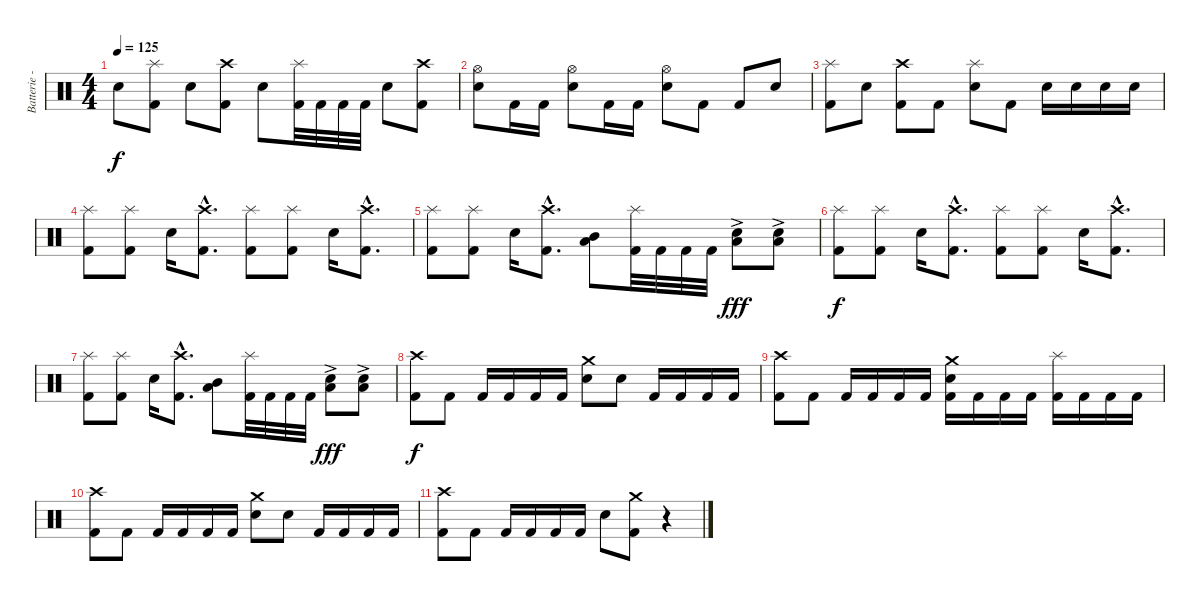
\track ("Batterie - Anton" "Batterie -") {instrument percussion}
\staff {score}
\articulation defaults
\ts (4 4)
\tempo 125
\clef neutral
\ks c "Electric Snare (hit)".8{dy f}
("Splash (hit)" "Kick (hit) 2").8 "Electric Snare (hit)".8 ("Crash high (hit)" "Kick (hit) 2").8 "Electric Snare (hit)".8 ("Splash (hit)" "Kick (hit) 2").32 "Kick (hit) 2".32 "Kick (hit) 2".32 "Kick (hit) 2".32 "Electric Snare (hit)".8 ("Crash high (hit)" "Kick (hit) 2").8 |
("Hi-Hat (open)" "Electric Snare (hit)").8 "Kick (hit) 2".16 "Kick (hit) 2".16 ("Hi-Hat (open)" "Electric Snare (hit)").8 "Kick (hit) 2".16 "Kick (hit) 2".16 ("Hi-Hat (open)" "Electric Snare (hit)").8 "Kick (hit) 2".8 "Kick (hit) 2".8 "Electric Snare (hit)".8 |
("Splash (hit)" "Kick (hit) 2").8 "Electric Snare (hit)".8 ("Crash high (hit)" "Kick (hit) 2").8 "Kick (hit) 2".8 ("Splash (hit)" "Electric Snare (hit)").8 "Kick (hit) 2".8 "Electric Snare (hit)".16 "Electric Snare (hit)".16 "Electric Snare (hit)".16 "Electric Snare (hit)".16 |
("Splash (hit)" "Kick (hit) 2").8 ("Splash (hit)" "Kick (hit) 2").8 "Electric Snare (hit)".16 ("Crash high (hit)"{hac} "Kick (hit) 2"{hac}).8{d} ("Splash (hit)" "Kick (hit) 2").8 ("Splash (hit)" "Kick (hit) 2").8 "Electric Snare (hit)".16 ("Crash high (hit)"{hac} "Kick (hit) 2"{hac}).8{d} |
("Splash (hit)" "Kick (hit) 2").8 ("Splash (hit)" "Kick (hit) 2").8 "Electric Snare (hit)".16 ("Crash high (hit)"{hac} "Kick (hit) 2"{hac}).8{d} ("Low Tom (hit)" "Mid Tom (hit)").8 ("Splash (hit)" "Kick (hit) 2").32 "Kick (hit) 2".32 "Kick (hit) 2".32 "Kick (hit) 2".32 ("Low Floor Tom (hit)" "Electric Snare (hit)"{ac}).8{dy fff} ("Low Floor Tom (hit)" "Electric Snare (hit)"{ac}).8 |
("Splash (hit)" "Kick (hit) 2").8{dy f} ("Splash (hit)" "Kick (hit) 2").8 "Electric Snare (hit)".16 ("Crash high (hit)"{hac} "Kick (hit) 2"{hac}).8{d} ("Splash (hit)" "Kick (hit) 2").8 ("Splash (hit)" "Kick (hit) 2").8 "Electric Snare (hit)".16 ("Crash high (hit)"{hac} "Kick (hit) 2"{hac}).8{d} |
("Splash (hit)" "Kick (hit) 2").8 ("Splash (hit)" "Kick (hit) 2").8 "Electric Snare (hit)".16 ("Crash high (hit)"{hac} "Kick (hit) 2"{hac}).8{d} ("Low Tom (hit)" "Mid Tom (hit)").8 ("Splash (hit)" "Kick (hit) 2").32 "Kick (hit) 2".32 "Kick (hit) 2".32 "Kick (hit) 2".32 ("Low Floor Tom (hit)" "Electric Snare (hit)"{ac}).8{dy fff} ("Low Floor Tom (hit)" "Electric Snare (hit)"{ac}).8 |
("Crash high (hit)" "Kick (hit) 2").8{dy f} "Kick (hit) 2".8 "Kick (hit) 2".16 "Kick (hit) 2".16 "Kick (hit) 2".16 "Kick (hit) 2".16 ("Crash medium (hit)" "Electric Snare (hit)").8 "Electric Snare (hit)".8 "Kick (hit) 2".16 "Kick (hit) 2".16 "Kick (hit) 2".16 "Kick (hit) 2".16 |
("Crash high (hit)" "Kick (hit) 2").8 "Kick (hit) 2".8 "Kick (hit) 2".16 "Kick (hit) 2".16 "Kick (hit) 2".16 "Kick (hit) 2".16 ("Crash medium (hit)" "Electric Snare (hit)" "Kick (hit) 2").16 "Kick (hit) 2".16 "Kick (hit) 2".16 "Kick (hit) 2".16 ("Splash (hit)" "Kick (hit) 2").16 "Kick (hit) 2".16 "Kick (hit) 2".16 "Kick (hit) 2".16 |
("Crash high (hit)" "Kick (hit) 2").8 "Kick (hit) 2".8 "Kick (hit) 2".16 "Kick (hit) 2".16 "Kick (hit) 2".16 "Kick (hit) 2".16 ("Crash medium (hit)" "Electric Snare (hit)").8 "Electric Snare (hit)".8 "Kick (hit) 2".16 "Kick (hit) 2".16 "Kick (hit) 2".16 "Kick (hit) 2".16 |
("Crash high (hit)" "Kick (hit) 2").8 "Kick (hit) 2".8 "Kick (hit) 2".16 "Kick (hit) 2".16 "Kick (hit) 2".16 "Kick (hit) 2".16 "Electric Snare (hit)".8 ("Crash medium (hit)" "Kick (hit) 2").8 r.4
